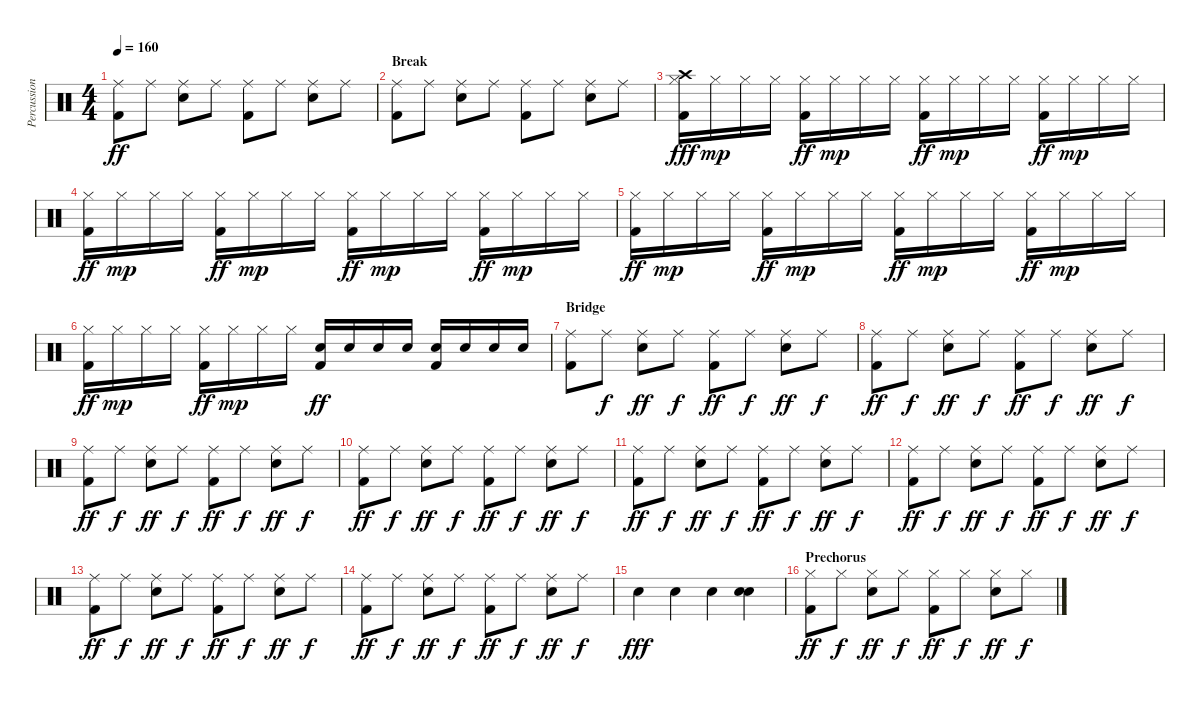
\track ("Percussion" "Percussion") {instrument percussion}
\staff {score}
\articulation defaults
\ts (4 4)
\tempo 160
\clef neutral
\ks c
("Ride (middle)" "Kick (hit) 2").8{dy ff} "Ride (middle)".8 ("Ride (middle)" "Snare (hit) 2").8 "Ride (middle)".8 ("Ride (middle)" "Kick (hit) 2").8 "Ride (middle)".8 ("Ride (middle)" "Snare (hit) 2").8 "Ride (middle)".8 |
\section ("" "Break")
("Ride (middle)" "Kick (hit) 2").8 "Ride (middle)".8 ("Ride (middle)" "Snare (hit) 2").8 "Ride (middle)".8 ("Ride (middle)" "Kick (hit) 2").8 "Ride (middle)".8 ("Ride (middle)" "Snare (hit) 2").8 "Ride (middle)".8 |
("Hi-Hat (closed)" "Kick (hit) 2" "Crash high (hit)").16{dy fff} "Hi-Hat (closed)".16{dy mp} "Hi-Hat (closed)".16 "Hi-Hat (closed)".16 ("Hi-Hat (closed)" "Kick (hit) 2").16{dy ff} "Hi-Hat (closed)".16{dy mp} "Hi-Hat (closed)".16 "Hi-Hat (closed)".16 ("Hi-Hat (closed)" "Kick (hit) 2").16{dy ff} "Hi-Hat (closed)".16{dy mp} "Hi-Hat (closed)".16 "Hi-Hat (closed)".16 ("Hi-Hat (closed)" "Kick (hit) 2").16{dy ff} "Hi-Hat (closed)".16{dy mp} "Hi-Hat (closed)".16 "Hi-Hat (closed)".16 |
("Hi-Hat (closed)" "Kick (hit) 2").16{dy ff} "Hi-Hat (closed)".16{dy mp} "Hi-Hat (closed)".16 "Hi-Hat (closed)".16 ("Hi-Hat (closed)" "Kick (hit) 2").16{dy ff} "Hi-Hat (closed)".16{dy mp} "Hi-Hat (closed)".16 "Hi-Hat (closed)".16 ("Hi-Hat (closed)" "Kick (hit) 2").16{dy ff} "Hi-Hat (closed)".16{dy mp} "Hi-Hat (closed)".16 "Hi-Hat (closed)".16 ("Hi-Hat (closed)" "Kick (hit) 2").16{dy ff} "Hi-Hat (closed)".16{dy mp} "Hi-Hat (closed)".16 "Hi-Hat (closed)".16 |
("Hi-Hat (closed)" "Kick (hit) 2").16{dy ff} "Hi-Hat (closed)".16{dy mp} "Hi-Hat (closed)".16 "Hi-Hat (closed)".16 ("Hi-Hat (closed)" "Kick (hit) 2").16{dy ff} "Hi-Hat (closed)".16{dy mp} "Hi-Hat (closed)".16 "Hi-Hat (closed)".16 ("Hi-Hat (closed)" "Kick (hit) 2").16{dy ff} "Hi-Hat (closed)".16{dy mp} "Hi-Hat (closed)".16 "Hi-Hat (closed)".16 ("Hi-Hat (closed)" "Kick (hit) 2").16{dy ff} "Hi-Hat (closed)".16{dy mp} "Hi-Hat (closed)".16 "Hi-Hat (closed)".16 |
("Hi-Hat (closed)" "Kick (hit) 2").16{dy ff} "Hi-Hat (closed)".16{dy mp} "Hi-Hat (closed)".16 "Hi-Hat (closed)".16 ("Hi-Hat (closed)" "Kick (hit) 2").16{dy ff} "Hi-Hat (closed)".16{dy mp} "Hi-Hat (closed)".16 "Hi-Hat (closed)".16 ("Snare (hit) 2" "Kick (hit) 2").16{dy ff} "Snare (hit) 2".16 "Snare (hit) 2".16 "Snare (hit) 2".16 ("Snare (hit) 2" "Kick (hit) 2").16 "Snare (hit) 2".16 "Snare (hit) 2".16 "Snare (hit) 2".16 |
\section ("" "Bridge")
("Ride (middle)" "Kick (hit) 2").8 "Ride (middle)".8{dy f} ("Ride (middle)" "Snare (hit) 2").8{dy ff} "Ride (middle)".8{dy f} ("Ride (middle)" "Kick (hit) 2").8{dy ff} "Ride (middle)".8{dy f} ("Ride (middle)" "Snare (hit) 2").8{dy ff} "Ride (middle)".8{dy f} |
("Ride (middle)" "Kick (hit) 2").8{dy ff} "Ride (middle)".8{dy f} ("Ride (middle)" "Snare (hit) 2").8{dy ff} "Ride (middle)".8{dy f} ("Ride (middle)" "Kick (hit) 2").8{dy ff} "Ride (middle)".8{dy f} ("Ride (middle)" "Snare (hit) 2").8{dy ff} "Ride (middle)".8{dy f} |
("Ride (middle)" "Kick (hit) 2").8{dy ff} "Ride (middle)".8{dy f} ("Ride (middle)" "Snare (hit) 2").8{dy ff} "Ride (middle)".8{dy f} ("Ride (middle)" "Kick (hit) 2").8{dy ff} "Ride (middle)".8{dy f} ("Ride (middle)" "Snare (hit) 2").8{dy ff} "Ride (middle)".8{dy f} |
("Ride (middle)" "Kick (hit) 2").8{dy ff} "Ride (middle)".8{dy f} ("Ride (middle)" "Snare (hit) 2").8{dy ff} "Ride (middle)".8{dy f} ("Ride (middle)" "Kick (hit) 2").8{dy ff} "Ride (middle)".8{dy f} ("Ride (middle)" "Snare (hit) 2").8{dy ff} "Ride (middle)".8{dy f} |
("Ride (middle)" "Kick (hit) 2").8{dy ff} "Ride (middle)".8{dy f} ("Ride (middle)" "Snare (hit) 2").8{dy ff} "Ride (middle)".8{dy f} ("Ride (middle)" "Kick (hit) 2").8{dy ff} "Ride (middle)".8{dy f} ("Ride (middle)" "Snare (hit) 2").8{dy ff} "Ride (middle)".8{dy f} |
("Ride (middle)" "Kick (hit) 2").8{dy ff} "Ride (middle)".8{dy f} ("Ride (middle)" "Snare (hit) 2").8{dy ff} "Ride (middle)".8{dy f} ("Ride (middle)" "Kick (hit) 2").8{dy ff} "Ride (middle)".8{dy f} ("Ride (middle)" "Snare (hit) 2").8{dy ff} "Ride (middle)".8{dy f} |
("Ride (middle)" "Kick (hit) 2").8{dy ff} "Ride (middle)".8{dy f} ("Ride (middle)" "Snare (hit) 2").8{dy ff} "Ride (middle)".8{dy f} ("Ride (middle)" "Kick (hit) 2").8{dy ff} "Ride (middle)".8{dy f} ("Ride (middle)" "Snare (hit) 2").8{dy ff} "Ride (middle)".8{dy f} |
("Ride (middle)" "Kick (hit) 2").8{dy ff} "Ride (middle)".8{dy f} ("Ride (middle)" "Snare (hit) 2").8{dy ff} "Ride (middle)".8{dy f} ("Ride (middle)" "Kick (hit) 2").8{dy ff} "Ride (middle)".8{dy f} ("Ride (middle)" "Snare (hit) 2").8{dy ff} "Ride (middle)".8{dy f} |
"Snare (hit) 2".4{dy fff} "Snare (hit) 2".4 "Snare (hit) 2".4 ("Snare (hit) 2" "Electric Snare (hit)").4 |
\section ("" "Prechorus")
("Hi-Hat (closed)" "Kick (hit) 2").8{dy ff} "Hi-Hat (closed)".8{dy f} ("Hi-Hat (closed)" "Snare (hit) 2").8{dy ff} "Hi-Hat (closed)".8{dy f} ("Hi-Hat (closed)" "Kick (hit) 2").8{dy ff} "Hi-Hat (closed)".8{dy f} ("Hi-Hat (closed)" "Snare (hit) 2").8{dy ff} "Hi-Hat (closed)".8{dy f}
